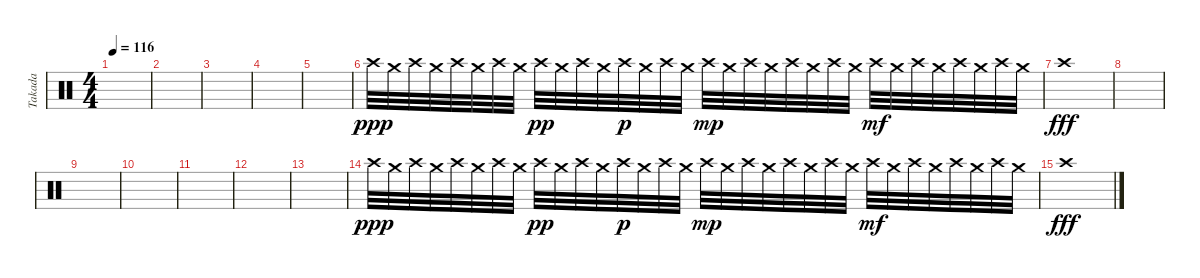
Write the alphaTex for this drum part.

\track ("Takada" "Takada") {instrument percussion}
\staff {score}
\articulation defaults
\ts (4 4)
\tempo 116
\clef neutral
\ks c
|
|
|
|
|
"Crash high (hit)".32{dy ppp} "Crash medium (hit)".32 "Crash high (hit)".32 "Crash medium (hit)".32 "Crash high (hit)".32 "Crash medium (hit)".32 "Crash high (hit)".32 "Crash medium (hit)".32 "Crash high (hit)".32{dy pp} "Crash medium (hit)".32 "Crash high (hit)".32 "Crash medium (hit)".32 "Crash high (hit)".32{dy p} "Crash medium (hit)".32 "Crash high (hit)".32 "Crash medium (hit)".32 "Crash high (hit)".32{dy mp} "Crash medium (hit)".32 "Crash high (hit)".32 "Crash medium (hit)".32 "Crash high (hit)".32 "Crash medium (hit)".32 "Crash high (hit)".32 "Crash medium (hit)".32 "Crash high (hit)".32{dy mf} "Crash medium (hit)".32 "Crash high (hit)".32 "Crash medium (hit)".32 "Crash high (hit)".32 "Crash medium (hit)".32 "Crash high (hit)".32 "Crash medium (hit)".32 |
"Crash high (hit)".1{dy fff} |
|
|
|
|
|
|
"Crash high (hit)".32{dy ppp} "Crash medium (hit)".32 "Crash high (hit)".32 "Crash medium (hit)".32 "Crash high (hit)".32 "Crash medium (hit)".32 "Crash high (hit)".32 "Crash medium (hit)".32 "Crash high (hit)".32{dy pp} "Crash medium (hit)".32 "Crash high (hit)".32 "Crash medium (hit)".32 "Crash high (hit)".32{dy p} "Crash medium (hit)".32 "Crash high (hit)".32 "Crash medium (hit)".32 "Crash high (hit)".32{dy mp} "Crash medium (hit)".32 "Crash high (hit)".32 "Crash medium (hit)".32 "Crash high (hit)".32 "Crash medium (hit)".32 "Crash high (hit)".32 "Crash medium (hit)".32 "Crash high (hit)".32{dy mf} "Crash medium (hit)".32 "Crash high (hit)".32 "Crash medium (hit)".32 "Crash high (hit)".32 "Crash medium (hit)".32 "Crash high (hit)".32 "Crash medium (hit)".32 |
"Crash high (hit)".1{dy fff}
